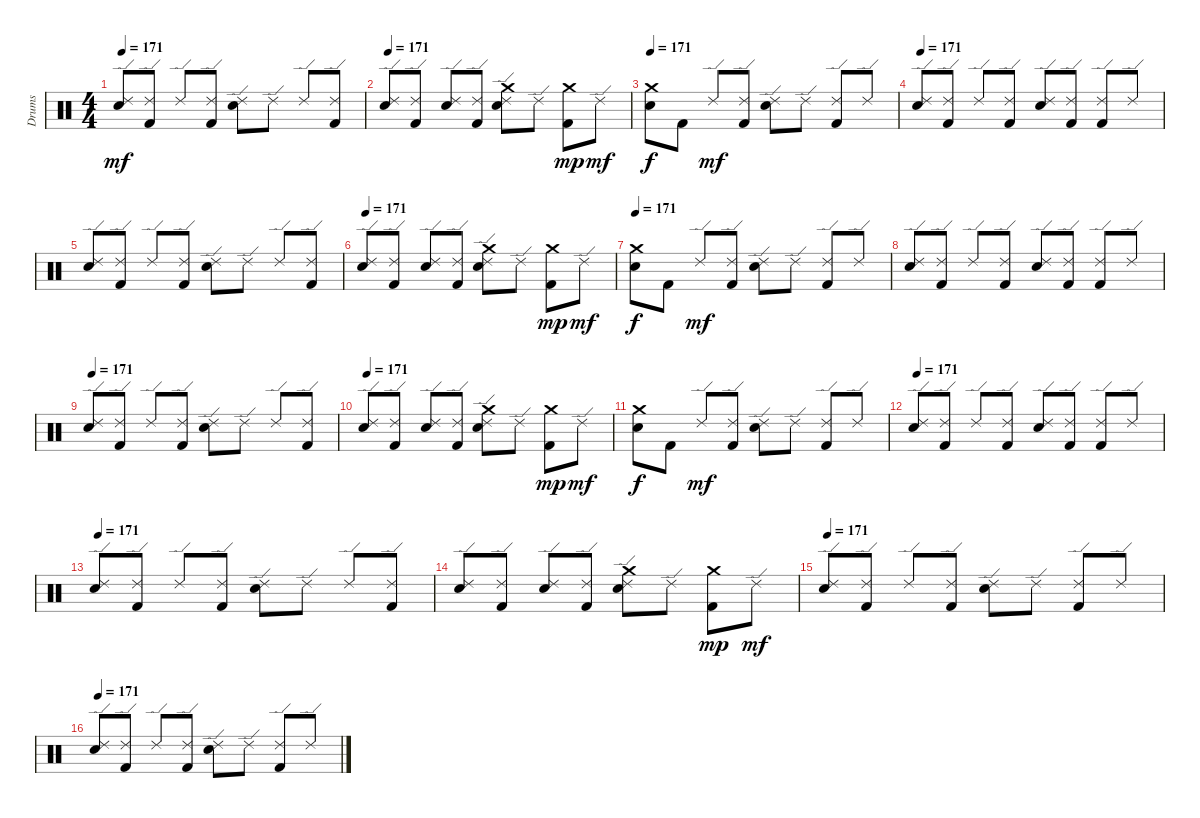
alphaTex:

\track ("Drums" "Drums") {instrument percussion}
\staff {score}
\articulation defaults
\ts (4 4)
\tempo 171
\clef neutral
\ks c
("Electric Snare (hit)" "Ride (edge) 2").8{dy mf} ("Kick (hit) 2" "Ride (edge) 2").8 "Ride (edge) 2".8 ("Kick (hit) 2" "Ride (edge) 2").8 ("Electric Snare (hit)" "Ride (edge) 2").8 "Ride (edge) 2".8 "Ride (edge) 2".8 ("Kick (hit) 2" "Ride (edge) 2").8 |
\tempo 171
("Electric Snare (hit)" "Ride (edge) 2").8 ("Kick (hit) 2" "Ride (edge) 2").8 ("Electric Snare (hit)" "Ride (edge) 2").8 ("Kick (hit) 2" "Ride (edge) 2").8 ("Electric Snare (hit)" "Crash medium (hit)" "Ride (edge) 2").8 "Ride (edge) 2".8 ("Kick (hit) 2" "Crash medium (hit)").8{dy mp} "Ride (edge) 2".8{dy mf} |
\tempo 171
("Electric Snare (hit)" "Crash medium (hit)").8{dy f} "Kick (hit) 2".8 "Ride (edge) 2".8{dy mf} ("Kick (hit) 2" "Ride (edge) 2").8 ("Electric Snare (hit)" "Ride (edge) 2").8 "Ride (edge) 2".8 ("Kick (hit) 2" "Ride (edge) 2").8 "Ride (edge) 2".8 |
\tempo 171
("Electric Snare (hit)" "Ride (edge) 2").8 ("Kick (hit) 2" "Ride (edge) 2").8 "Ride (edge) 2".8 ("Kick (hit) 2" "Ride (edge) 2").8 ("Electric Snare (hit)" "Ride (edge) 2").8 ("Kick (hit) 2" "Ride (edge) 2").8 ("Kick (hit) 2" "Ride (edge) 2").8 "Ride (edge) 2".8 |
("Electric Snare (hit)" "Ride (edge) 2").8 ("Kick (hit) 2" "Ride (edge) 2").8 "Ride (edge) 2".8 ("Kick (hit) 2" "Ride (edge) 2").8 ("Electric Snare (hit)" "Ride (edge) 2").8 "Ride (edge) 2".8 "Ride (edge) 2".8 ("Kick (hit) 2" "Ride (edge) 2").8 |
\tempo 171
("Electric Snare (hit)" "Ride (edge) 2").8 ("Kick (hit) 2" "Ride (edge) 2").8 ("Electric Snare (hit)" "Ride (edge) 2").8 ("Kick (hit) 2" "Ride (edge) 2").8 ("Electric Snare (hit)" "Crash medium (hit)" "Ride (edge) 2").8 "Ride (edge) 2".8 ("Kick (hit) 2" "Crash medium (hit)").8{dy mp} "Ride (edge) 2".8{dy mf} |
\tempo 171
("Electric Snare (hit)" "Crash medium (hit)").8{dy f} "Kick (hit) 2".8 "Ride (edge) 2".8{dy mf} ("Kick (hit) 2" "Ride (edge) 2").8 ("Electric Snare (hit)" "Ride (edge) 2").8 "Ride (edge) 2".8 ("Kick (hit) 2" "Ride (edge) 2").8 "Ride (edge) 2".8 |
("Electric Snare (hit)" "Ride (edge) 2").8 ("Kick (hit) 2" "Ride (edge) 2").8 "Ride (edge) 2".8 ("Kick (hit) 2" "Ride (edge) 2").8 ("Electric Snare (hit)" "Ride (edge) 2").8 ("Kick (hit) 2" "Ride (edge) 2").8 ("Kick (hit) 2" "Ride (edge) 2").8 "Ride (edge) 2".8 |
\tempo 171
("Electric Snare (hit)" "Ride (edge) 2").8 ("Kick (hit) 2" "Ride (edge) 2").8 "Ride (edge) 2".8 ("Kick (hit) 2" "Ride (edge) 2").8 ("Electric Snare (hit)" "Ride (edge) 2").8 "Ride (edge) 2".8 "Ride (edge) 2".8 ("Kick (hit) 2" "Ride (edge) 2").8 |
\tempo 171
("Electric Snare (hit)" "Ride (edge) 2").8 ("Kick (hit) 2" "Ride (edge) 2").8 ("Electric Snare (hit)" "Ride (edge) 2").8 ("Kick (hit) 2" "Ride (edge) 2").8 ("Electric Snare (hit)" "Crash medium (hit)" "Ride (edge) 2").8 "Ride (edge) 2".8 ("Kick (hit) 2" "Crash medium (hit)").8{dy mp} "Ride (edge) 2".8{dy mf} |
("Electric Snare (hit)" "Crash medium (hit)").8{dy f} "Kick (hit) 2".8 "Ride (edge) 2".8{dy mf} ("Kick (hit) 2" "Ride (edge) 2").8 ("Electric Snare (hit)" "Ride (edge) 2").8 "Ride (edge) 2".8 ("Kick (hit) 2" "Ride (edge) 2").8 "Ride (edge) 2".8 |
\tempo 171
("Electric Snare (hit)" "Ride (edge) 2").8 ("Kick (hit) 2" "Ride (edge) 2").8 "Ride (edge) 2".8 ("Kick (hit) 2" "Ride (edge) 2").8 ("Electric Snare (hit)" "Ride (edge) 2").8 ("Kick (hit) 2" "Ride (edge) 2").8 ("Kick (hit) 2" "Ride (edge) 2").8 "Ride (edge) 2".8 |
\tempo 171
("Electric Snare (hit)" "Ride (edge) 2").8 ("Kick (hit) 2" "Ride (edge) 2").8 "Ride (edge) 2".8 ("Kick (hit) 2" "Ride (edge) 2").8 ("Electric Snare (hit)" "Ride (edge) 2").8 "Ride (edge) 2".8 "Ride (edge) 2".8 ("Kick (hit) 2" "Ride (edge) 2").8 |
("Electric Snare (hit)" "Ride (edge) 2").8 ("Kick (hit) 2" "Ride (edge) 2").8 ("Electric Snare (hit)" "Ride (edge) 2").8 ("Kick (hit) 2" "Ride (edge) 2").8 ("Electric Snare (hit)" "Crash medium (hit)" "Ride (edge) 2").8 "Ride (edge) 2".8 ("Kick (hit) 2" "Crash medium (hit)").8{dy mp} "Ride (edge) 2".8{dy mf} |
\tempo 171
("Electric Snare (hit)" "Ride (edge) 2").8 ("Kick (hit) 2" "Ride (edge) 2").8 "Ride (edge) 2".8 ("Kick (hit) 2" "Ride (edge) 2").8 ("Electric Snare (hit)" "Ride (edge) 2").8 "Ride (edge) 2".8 ("Kick (hit) 2" "Ride (edge) 2").8 "Ride (edge) 2".8 |
\tempo 171
("Electric Snare (hit)" "Ride (edge) 2").8 ("Kick (hit) 2" "Ride (edge) 2").8 "Ride (edge) 2".8 ("Kick (hit) 2" "Ride (edge) 2").8 ("Electric Snare (hit)" "Ride (edge) 2").8 "Ride (edge) 2".8 ("Kick (hit) 2" "Ride (edge) 2").8 "Ride (edge) 2".8
